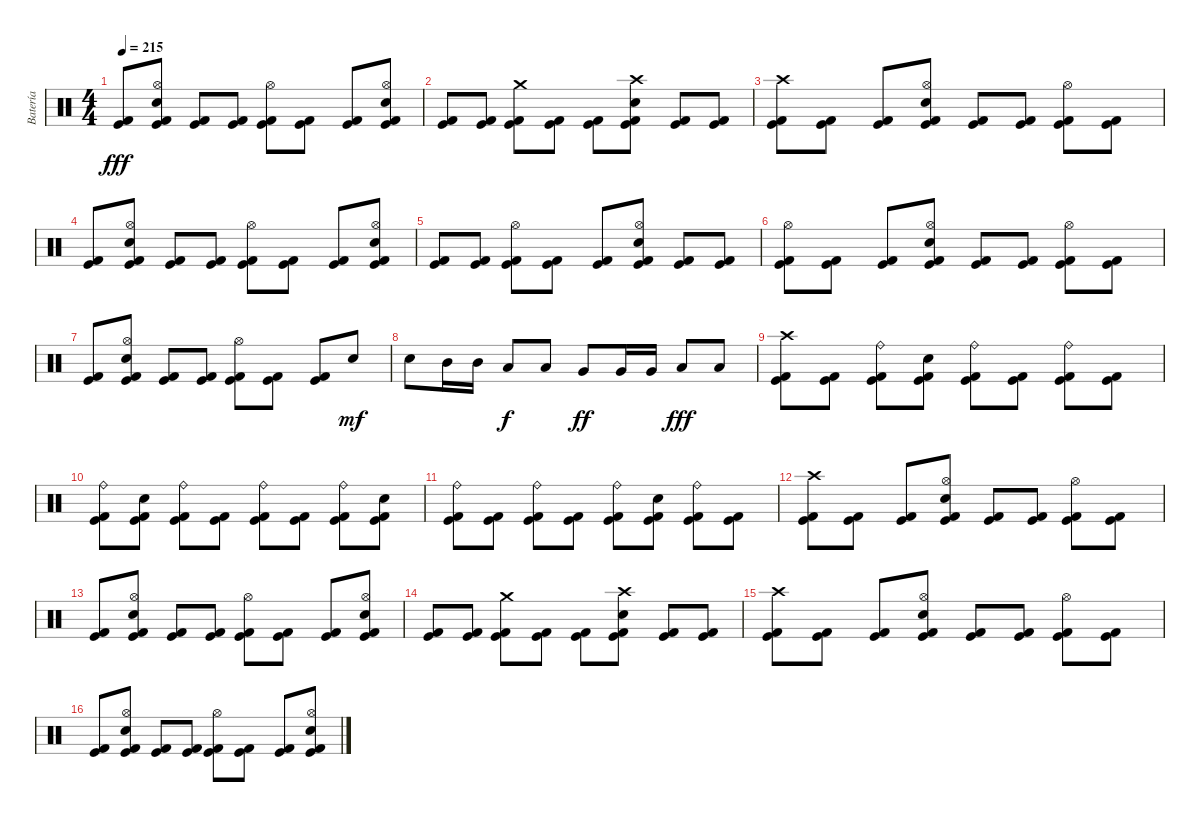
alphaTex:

\track ("Batería" "Batería") {instrument percussion}
\staff {score}
\articulation defaults
\ts (4 4)
\tempo 215
\clef neutral
\ks c
("Kick (hit) 2" "Kick (hit)").8{dy fff} ("Hi-Hat (open)" "Electric Snare (hit)" "Kick (hit) 2" "Kick (hit)").8 ("Kick (hit) 2" "Kick (hit)").8 ("Kick (hit) 2" "Kick (hit)").8 ("Hi-Hat (open)" "Kick (hit) 2" "Kick (hit)").8 ("Kick (hit) 2" "Kick (hit)").8 ("Kick (hit) 2" "Kick (hit)").8 ("Hi-Hat (open)" "Electric Snare (hit)" "Kick (hit) 2" "Kick (hit)").8 |
("Kick (hit) 2" "Kick (hit)").8 ("Kick (hit) 2" "Kick (hit)").8 ("Crash medium (hit)" "Kick (hit) 2" "Kick (hit)").8 ("Kick (hit) 2" "Kick (hit)").8 ("Kick (hit) 2" "Kick (hit)").8 ("Crash high (hit)" "Electric Snare (hit)" "Kick (hit) 2" "Kick (hit)").8 ("Kick (hit) 2" "Kick (hit)").8 ("Kick (hit) 2" "Kick (hit)").8 |
("Crash high (hit)" "Kick (hit) 2" "Kick (hit)").8 ("Kick (hit) 2" "Kick (hit)").8 ("Kick (hit) 2" "Kick (hit)").8 ("Hi-Hat (open)" "Electric Snare (hit)" "Kick (hit) 2" "Kick (hit)").8 ("Kick (hit) 2" "Kick (hit)").8 ("Kick (hit) 2" "Kick (hit)").8 ("Hi-Hat (open)" "Kick (hit) 2" "Kick (hit)").8 ("Kick (hit) 2" "Kick (hit)").8 |
("Kick (hit) 2" "Kick (hit)").8 ("Hi-Hat (open)" "Electric Snare (hit)" "Kick (hit) 2" "Kick (hit)").8 ("Kick (hit) 2" "Kick (hit)").8 ("Kick (hit) 2" "Kick (hit)").8 ("Hi-Hat (open)" "Kick (hit) 2" "Kick (hit)").8 ("Kick (hit) 2" "Kick (hit)").8 ("Kick (hit) 2" "Kick (hit)").8 ("Hi-Hat (open)" "Electric Snare (hit)" "Kick (hit) 2" "Kick (hit)").8 |
("Kick (hit) 2" "Kick (hit)").8 ("Kick (hit) 2" "Kick (hit)").8 ("Hi-Hat (open)" "Kick (hit) 2" "Kick (hit)").8 ("Kick (hit) 2" "Kick (hit)").8 ("Kick (hit) 2" "Kick (hit)").8 ("Hi-Hat (open)" "Electric Snare (hit)" "Kick (hit) 2" "Kick (hit)").8 ("Kick (hit) 2" "Kick (hit)").8 ("Kick (hit) 2" "Kick (hit)").8 |
("Hi-Hat (open)" "Kick (hit) 2" "Kick (hit)").8 ("Kick (hit) 2" "Kick (hit)").8 ("Kick (hit) 2" "Kick (hit)").8 ("Hi-Hat (open)" "Electric Snare (hit)" "Kick (hit) 2" "Kick (hit)").8 ("Kick (hit) 2" "Kick (hit)").8 ("Kick (hit) 2" "Kick (hit)").8 ("Hi-Hat (open)" "Kick (hit) 2" "Kick (hit)").8 ("Kick (hit) 2" "Kick (hit)").8 |
("Kick (hit) 2" "Kick (hit)").8 ("Hi-Hat (open)" "Electric Snare (hit)" "Kick (hit) 2" "Kick (hit)").8 ("Kick (hit) 2" "Kick (hit)").8 ("Kick (hit) 2" "Kick (hit)").8 ("Hi-Hat (open)" "Kick (hit) 2" "Kick (hit)").8 ("Kick (hit) 2" "Kick (hit)").8 ("Kick (hit) 2" "Kick (hit)").8 "Electric Snare (hit)".8{dy mf} |
"Electric Snare (hit)".8 "Mid Tom (hit)".16 "Mid Tom (hit)".16 "Low Tom (hit)".8{dy f} "Low Tom (hit)".8 "Very Low Tom (hit)".8{dy ff} "Very Low Tom (hit)".16 "Very Low Tom (hit)".16 "Low Floor Tom (hit)".8{dy fff} "Low Floor Tom (hit)".8 |
("Crash high (hit)" "Kick (hit) 2" "Kick (hit)").8 ("Kick (hit) 2" "Kick (hit)").8 ("Ride (bell)" "Kick (hit) 2" "Kick (hit)").8 ("Electric Snare (hit)" "Kick (hit) 2" "Kick (hit)").8 ("Ride (bell)" "Kick (hit) 2" "Kick (hit)").8 ("Kick (hit) 2" "Kick (hit)").8 ("Ride (bell)" "Kick (hit) 2" "Kick (hit)").8 ("Kick (hit) 2" "Kick (hit)").8 |
("Ride (bell)" "Kick (hit) 2" "Kick (hit)").8 ("Electric Snare (hit)" "Kick (hit) 2" "Kick (hit)").8 ("Ride (bell)" "Kick (hit) 2" "Kick (hit)").8 ("Kick (hit) 2" "Kick (hit)").8 ("Ride (bell)" "Kick (hit) 2" "Kick (hit)").8 ("Kick (hit) 2" "Kick (hit)").8 ("Ride (bell)" "Kick (hit) 2" "Kick (hit)").8 ("Electric Snare (hit)" "Kick (hit) 2" "Kick (hit)").8 |
("Ride (bell)" "Kick (hit) 2" "Kick (hit)").8 ("Kick (hit) 2" "Kick (hit)").8 ("Ride (bell)" "Kick (hit) 2" "Kick (hit)").8 ("Kick (hit) 2" "Kick (hit)").8 ("Ride (bell)" "Kick (hit) 2" "Kick (hit)").8 ("Electric Snare (hit)" "Kick (hit) 2" "Kick (hit)").8 ("Ride (bell)" "Kick (hit) 2" "Kick (hit)").8 ("Kick (hit) 2" "Kick (hit)").8 |
("Crash high (hit)" "Kick (hit) 2" "Kick (hit)").8 ("Kick (hit) 2" "Kick (hit)").8 ("Kick (hit) 2" "Kick (hit)").8 ("Hi-Hat (open)" "Electric Snare (hit)" "Kick (hit) 2" "Kick (hit)").8 ("Kick (hit) 2" "Kick (hit)").8 ("Kick (hit) 2" "Kick (hit)").8 ("Hi-Hat (open)" "Kick (hit) 2" "Kick (hit)").8 ("Kick (hit) 2" "Kick (hit)").8 |
("Kick (hit) 2" "Kick (hit)").8 ("Hi-Hat (open)" "Electric Snare (hit)" "Kick (hit) 2" "Kick (hit)").8 ("Kick (hit) 2" "Kick (hit)").8 ("Kick (hit) 2" "Kick (hit)").8 ("Hi-Hat (open)" "Kick (hit) 2" "Kick (hit)").8 ("Kick (hit) 2" "Kick (hit)").8 ("Kick (hit) 2" "Kick (hit)").8 ("Hi-Hat (open)" "Electric Snare (hit)" "Kick (hit) 2" "Kick (hit)").8 |
("Kick (hit) 2" "Kick (hit)").8 ("Kick (hit) 2" "Kick (hit)").8 ("Crash medium (hit)" "Kick (hit) 2" "Kick (hit)").8 ("Kick (hit) 2" "Kick (hit)").8 ("Kick (hit) 2" "Kick (hit)").8 ("Crash high (hit)" "Electric Snare (hit)" "Kick (hit) 2" "Kick (hit)").8 ("Kick (hit) 2" "Kick (hit)").8 ("Kick (hit) 2" "Kick (hit)").8 |
("Crash high (hit)" "Kick (hit) 2" "Kick (hit)").8 ("Kick (hit) 2" "Kick (hit)").8 ("Kick (hit) 2" "Kick (hit)").8 ("Hi-Hat (open)" "Electric Snare (hit)" "Kick (hit) 2" "Kick (hit)").8 ("Kick (hit) 2" "Kick (hit)").8 ("Kick (hit) 2" "Kick (hit)").8 ("Hi-Hat (open)" "Kick (hit) 2" "Kick (hit)").8 ("Kick (hit) 2" "Kick (hit)").8 |
("Kick (hit) 2" "Kick (hit)").8 ("Hi-Hat (open)" "Electric Snare (hit)" "Kick (hit) 2" "Kick (hit)").8 ("Kick (hit) 2" "Kick (hit)").8 ("Kick (hit) 2" "Kick (hit)").8 ("Hi-Hat (open)" "Kick (hit) 2" "Kick (hit)").8 ("Kick (hit) 2" "Kick (hit)").8 ("Kick (hit) 2" "Kick (hit)").8 ("Hi-Hat (open)" "Electric Snare (hit)" "Kick (hit) 2" "Kick (hit)").8
